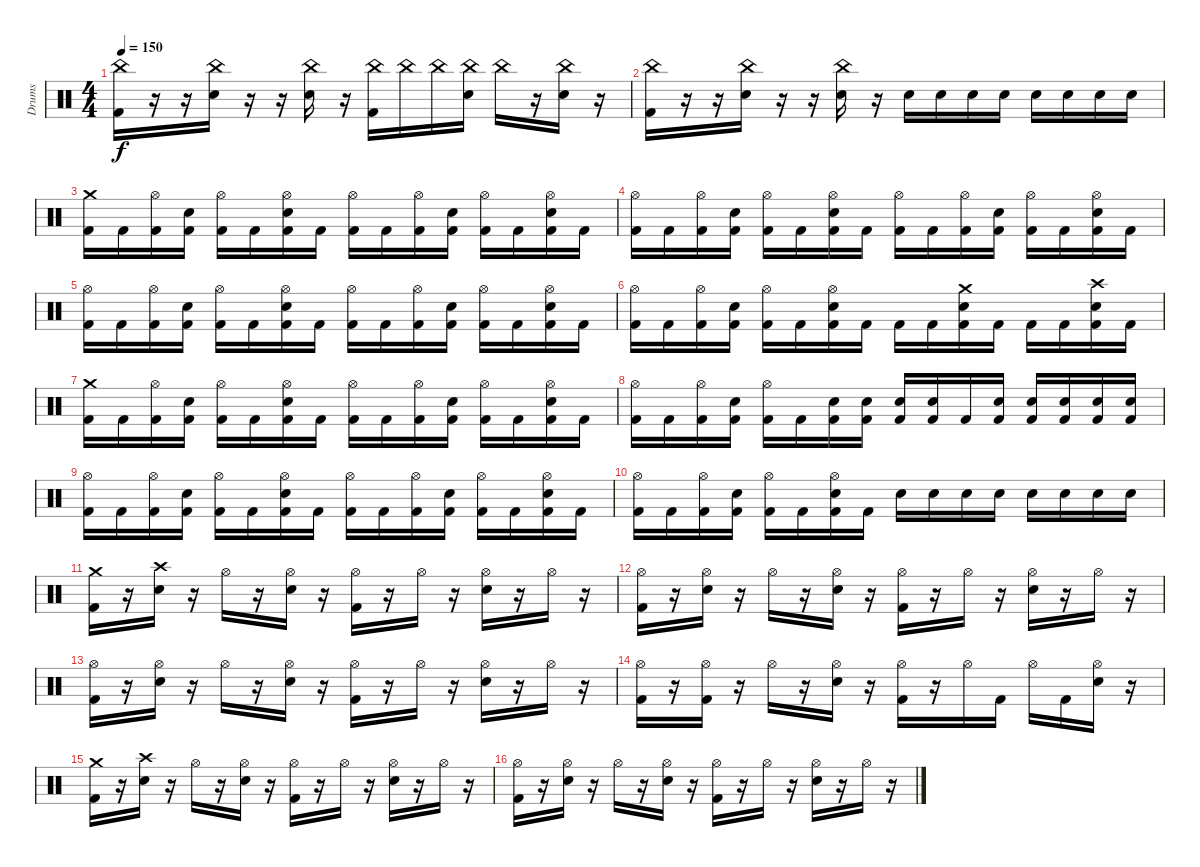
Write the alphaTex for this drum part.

\track ("Drums" "Drums") {instrument percussion}
\staff {score}
\articulation defaults
\ts (4 4)
\tempo 150
\clef neutral
\ks c
("China (hit)" "Kick (hit) 2").16{dy f} r.16 r.16 ("China (hit)" "Electric Snare (hit)").16 r.16 r.16 ("China (hit)" "Electric Snare (hit)").16 r.16 ("China (hit)" "Kick (hit) 2").16 "China (hit)".16 "China (hit)".16 ("China (hit)" "Electric Snare (hit)").16 "China (hit)".16 r.16 ("China (hit)" "Electric Snare (hit)").16 r.16 |
("China (hit)" "Kick (hit) 2").16 r.16 r.16 ("China (hit)" "Electric Snare (hit)").16 r.16 r.16 ("China (hit)" "Electric Snare (hit)").16 r.16 "Electric Snare (hit)".16 "Electric Snare (hit)".16 "Electric Snare (hit)".16 "Electric Snare (hit)".16 "Electric Snare (hit)".16 "Electric Snare (hit)".16 "Electric Snare (hit)".16 "Electric Snare (hit)".16 |
\section ("" "")
("Crash medium (hit)" "Kick (hit) 2").16 "Kick (hit) 2".16 ("Hi-Hat (open)" "Kick (hit) 2").16 ("Electric Snare (hit)" "Kick (hit) 2").16 ("Hi-Hat (open)" "Kick (hit) 2").16 "Kick (hit) 2".16 ("Hi-Hat (open)" "Electric Snare (hit)" "Kick (hit) 2").16 "Kick (hit) 2".16 ("Hi-Hat (open)" "Kick (hit) 2").16 "Kick (hit) 2".16 ("Hi-Hat (open)" "Kick (hit) 2").16 ("Electric Snare (hit)" "Kick (hit) 2").16 ("Hi-Hat (open)" "Kick (hit) 2").16 "Kick (hit) 2".16 ("Hi-Hat (open)" "Electric Snare (hit)" "Kick (hit) 2").16 "Kick (hit) 2".16 |
("Hi-Hat (open)" "Kick (hit) 2").16 "Kick (hit) 2".16 ("Hi-Hat (open)" "Kick (hit) 2").16 ("Electric Snare (hit)" "Kick (hit) 2").16 ("Hi-Hat (open)" "Kick (hit) 2").16 "Kick (hit) 2".16 ("Hi-Hat (open)" "Electric Snare (hit)" "Kick (hit) 2").16 "Kick (hit) 2".16 ("Hi-Hat (open)" "Kick (hit) 2").16 "Kick (hit) 2".16 ("Hi-Hat (open)" "Kick (hit) 2").16 ("Electric Snare (hit)" "Kick (hit) 2").16 ("Hi-Hat (open)" "Kick (hit) 2").16 "Kick (hit) 2".16 ("Hi-Hat (open)" "Electric Snare (hit)" "Kick (hit) 2").16 "Kick (hit) 2".16 |
("Hi-Hat (open)" "Kick (hit) 2").16 "Kick (hit) 2".16 ("Hi-Hat (open)" "Kick (hit) 2").16 ("Electric Snare (hit)" "Kick (hit) 2").16 ("Hi-Hat (open)" "Kick (hit) 2").16 "Kick (hit) 2".16 ("Hi-Hat (open)" "Electric Snare (hit)" "Kick (hit) 2").16 "Kick (hit) 2".16 ("Hi-Hat (open)" "Kick (hit) 2").16 "Kick (hit) 2".16 ("Hi-Hat (open)" "Kick (hit) 2").16 ("Electric Snare (hit)" "Kick (hit) 2").16 ("Hi-Hat (open)" "Kick (hit) 2").16 "Kick (hit) 2".16 ("Hi-Hat (open)" "Electric Snare (hit)" "Kick (hit) 2").16 "Kick (hit) 2".16 |
("Hi-Hat (open)" "Kick (hit) 2").16 "Kick (hit) 2".16 ("Hi-Hat (open)" "Kick (hit) 2").16 ("Electric Snare (hit)" "Kick (hit) 2").16 ("Hi-Hat (open)" "Kick (hit) 2").16 "Kick (hit) 2".16 ("Hi-Hat (open)" "Electric Snare (hit)" "Kick (hit) 2").16 "Kick (hit) 2".16 "Kick (hit) 2".16 "Kick (hit) 2".16 ("Crash medium (hit)" "Electric Snare (hit)" "Kick (hit) 2").16 "Kick (hit) 2".16 "Kick (hit) 2".16 "Kick (hit) 2".16 ("Crash high (hit)" "Electric Snare (hit)" "Kick (hit) 2").16 "Kick (hit) 2".16 |
("Crash medium (hit)" "Kick (hit) 2").16 "Kick (hit) 2".16 ("Hi-Hat (open)" "Kick (hit) 2").16 ("Electric Snare (hit)" "Kick (hit) 2").16 ("Hi-Hat (open)" "Kick (hit) 2").16 "Kick (hit) 2".16 ("Hi-Hat (open)" "Electric Snare (hit)" "Kick (hit) 2").16 "Kick (hit) 2".16 ("Hi-Hat (open)" "Kick (hit) 2").16 "Kick (hit) 2".16 ("Hi-Hat (open)" "Kick (hit) 2").16 ("Electric Snare (hit)" "Kick (hit) 2").16 ("Hi-Hat (open)" "Kick (hit) 2").16 "Kick (hit) 2".16 ("Hi-Hat (open)" "Electric Snare (hit)" "Kick (hit) 2").16 "Kick (hit) 2".16 |
("Hi-Hat (open)" "Kick (hit) 2").16 "Kick (hit) 2".16 ("Hi-Hat (open)" "Kick (hit) 2").16 ("Electric Snare (hit)" "Kick (hit) 2").16 ("Hi-Hat (open)" "Kick (hit) 2").16 "Kick (hit) 2".16 ("Electric Snare (hit)" "Kick (hit) 2").16 ("Electric Snare (hit)" "Kick (hit) 2").16 ("Electric Snare (hit)" "Kick (hit) 2").16 ("Electric Snare (hit)" "Kick (hit) 2").16 "Kick (hit) 2".16 ("Electric Snare (hit)" "Kick (hit) 2").16 ("Electric Snare (hit)" "Kick (hit) 2").16 ("Electric Snare (hit)" "Kick (hit) 2").16 ("Electric Snare (hit)" "Kick (hit) 2").16 ("Electric Snare (hit)" "Kick (hit) 2").16 |
("Hi-Hat (open)" "Kick (hit) 2").16 "Kick (hit) 2".16 ("Hi-Hat (open)" "Kick (hit) 2").16 ("Electric Snare (hit)" "Kick (hit) 2").16 ("Hi-Hat (open)" "Kick (hit) 2").16 "Kick (hit) 2".16 ("Hi-Hat (open)" "Electric Snare (hit)" "Kick (hit) 2").16 "Kick (hit) 2".16 ("Hi-Hat (open)" "Kick (hit) 2").16 "Kick (hit) 2".16 ("Hi-Hat (open)" "Kick (hit) 2").16 ("Electric Snare (hit)" "Kick (hit) 2").16 ("Hi-Hat (open)" "Kick (hit) 2").16 "Kick (hit) 2".16 ("Hi-Hat (open)" "Electric Snare (hit)" "Kick (hit) 2").16 "Kick (hit) 2".16 |
("Hi-Hat (open)" "Kick (hit) 2").16 "Kick (hit) 2".16 ("Hi-Hat (open)" "Kick (hit) 2").16 ("Electric Snare (hit)" "Kick (hit) 2").16 ("Hi-Hat (open)" "Kick (hit) 2").16 "Kick (hit) 2".16 ("Hi-Hat (open)" "Electric Snare (hit)" "Kick (hit) 2").16 "Kick (hit) 2".16 "Electric Snare (hit)".16 "Electric Snare (hit)".16 "Electric Snare (hit)".16 "Electric Snare (hit)".16 "Electric Snare (hit)".16 "Electric Snare (hit)".16 "Electric Snare (hit)".16 "Electric Snare (hit)".16 |
\section ("" "")
("Crash medium (hit)" "Kick (hit) 2").16 r.16 ("Crash high (hit)" "Electric Snare (hit)").16 r.16 "Hi-Hat (open)".16 r.16 ("Hi-Hat (open)" "Electric Snare (hit)").16 r.16 ("Hi-Hat (open)" "Kick (hit) 2").16 r.16 "Hi-Hat (open)".16 r.16 ("Hi-Hat (open)" "Electric Snare (hit)").16 r.16 "Hi-Hat (open)".16 r.16 |
("Hi-Hat (open)" "Kick (hit) 2").16 r.16 ("Hi-Hat (open)" "Electric Snare (hit)").16 r.16 "Hi-Hat (open)".16 r.16 ("Hi-Hat (open)" "Electric Snare (hit)").16 r.16 ("Hi-Hat (open)" "Kick (hit) 2").16 r.16 "Hi-Hat (open)".16 r.16 ("Hi-Hat (open)" "Electric Snare (hit)").16 r.16 "Hi-Hat (open)".16 r.16 |
("Hi-Hat (open)" "Kick (hit) 2").16 r.16 ("Hi-Hat (open)" "Electric Snare (hit)").16 r.16 "Hi-Hat (open)".16 r.16 ("Hi-Hat (open)" "Electric Snare (hit)").16 r.16 ("Hi-Hat (open)" "Kick (hit) 2").16 r.16 "Hi-Hat (open)".16 r.16 ("Hi-Hat (open)" "Electric Snare (hit)").16 r.16 "Hi-Hat (open)".16 r.16 |
("Hi-Hat (open)" "Kick (hit) 2").16 r.16 ("Hi-Hat (open)" "Kick (hit) 2").16 r.16 "Hi-Hat (open)".16 r.16 ("Hi-Hat (open)" "Electric Snare (hit)").16 r.16 ("Hi-Hat (open)" "Kick (hit) 2").16 r.16 "Hi-Hat (open)".16 "Kick (hit) 2".16 "Hi-Hat (open)".16 "Kick (hit) 2".16 ("Hi-Hat (open)" "Electric Snare (hit)").16 r.16 |
("Crash medium (hit)" "Kick (hit) 2").16 r.16 ("Crash high (hit)" "Electric Snare (hit)").16 r.16 "Hi-Hat (open)".16 r.16 ("Hi-Hat (open)" "Electric Snare (hit)").16 r.16 ("Hi-Hat (open)" "Kick (hit) 2").16 r.16 "Hi-Hat (open)".16 r.16 ("Hi-Hat (open)" "Electric Snare (hit)").16 r.16 "Hi-Hat (open)".16 r.16 |
("Hi-Hat (open)" "Kick (hit) 2").16 r.16 ("Hi-Hat (open)" "Electric Snare (hit)").16 r.16 "Hi-Hat (open)".16 r.16 ("Hi-Hat (open)" "Electric Snare (hit)").16 r.16 ("Hi-Hat (open)" "Kick (hit) 2").16 r.16 "Hi-Hat (open)".16 r.16 ("Hi-Hat (open)" "Electric Snare (hit)").16 r.16 "Hi-Hat (open)".16 r.16
